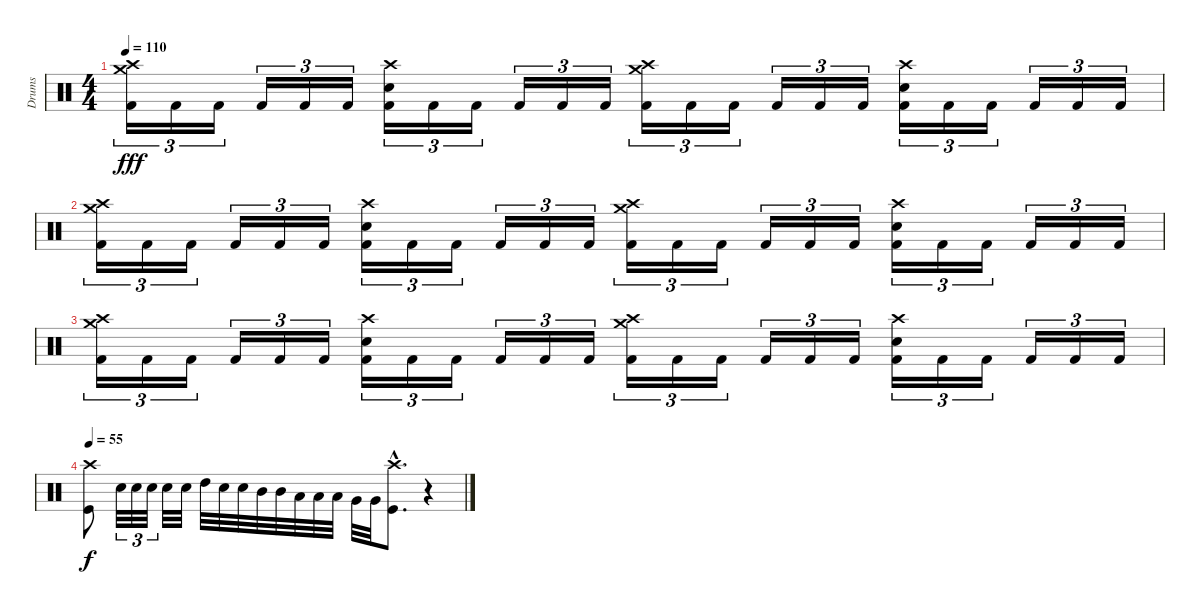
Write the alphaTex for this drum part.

\track ("Drums" "Drums") {instrument percussion}
\staff {score}
\articulation defaults
\ts (4 4)
\tempo 110
\clef neutral
\ks c
("Crash high (hit)" "Crash medium (hit)" "Kick (hit) 2").16{tu (3 2) dy fff} "Kick (hit) 2".16{tu (3 2)} "Kick (hit) 2".16{tu (3 2)} "Kick (hit) 2".16{tu (3 2)} "Kick (hit) 2".16{tu (3 2)} "Kick (hit) 2".16{tu (3 2)} ("Crash high (hit)" "Electric Snare (hit)" "Kick (hit) 2").16{tu (3 2)} "Kick (hit) 2".16{tu (3 2)} "Kick (hit) 2".16{tu (3 2)} "Kick (hit) 2".16{tu (3 2)} "Kick (hit) 2".16{tu (3 2)} "Kick (hit) 2".16{tu (3 2)} ("Crash high (hit)" "Crash medium (hit)" "Kick (hit) 2").16{tu (3 2)} "Kick (hit) 2".16{tu (3 2)} "Kick (hit) 2".16{tu (3 2)} "Kick (hit) 2".16{tu (3 2)} "Kick (hit) 2".16{tu (3 2)} "Kick (hit) 2".16{tu (3 2)} ("Crash high (hit)" "Electric Snare (hit)" "Kick (hit) 2").16{tu (3 2)} "Kick (hit) 2".16{tu (3 2)} "Kick (hit) 2".16{tu (3 2)} "Kick (hit) 2".16{tu (3 2)} "Kick (hit) 2".16{tu (3 2)} "Kick (hit) 2".16{tu (3 2)} |
("Crash high (hit)" "Crash medium (hit)" "Kick (hit) 2").16{tu (3 2)} "Kick (hit) 2".16{tu (3 2)} "Kick (hit) 2".16{tu (3 2)} "Kick (hit) 2".16{tu (3 2)} "Kick (hit) 2".16{tu (3 2)} "Kick (hit) 2".16{tu (3 2)} ("Crash high (hit)" "Electric Snare (hit)" "Kick (hit) 2").16{tu (3 2)} "Kick (hit) 2".16{tu (3 2)} "Kick (hit) 2".16{tu (3 2)} "Kick (hit) 2".16{tu (3 2)} "Kick (hit) 2".16{tu (3 2)} "Kick (hit) 2".16{tu (3 2)} ("Crash high (hit)" "Crash medium (hit)" "Kick (hit) 2").16{tu (3 2)} "Kick (hit) 2".16{tu (3 2)} "Kick (hit) 2".16{tu (3 2)} "Kick (hit) 2".16{tu (3 2)} "Kick (hit) 2".16{tu (3 2)} "Kick (hit) 2".16{tu (3 2)} ("Crash high (hit)" "Electric Snare (hit)" "Kick (hit) 2").16{tu (3 2)} "Kick (hit) 2".16{tu (3 2)} "Kick (hit) 2".16{tu (3 2)} "Kick (hit) 2".16{tu (3 2)} "Kick (hit) 2".16{tu (3 2)} "Kick (hit) 2".16{tu (3 2)} |
("Crash high (hit)" "Crash medium (hit)" "Kick (hit) 2").16{tu (3 2)} "Kick (hit) 2".16{tu (3 2)} "Kick (hit) 2".16{tu (3 2)} "Kick (hit) 2".16{tu (3 2)} "Kick (hit) 2".16{tu (3 2)} "Kick (hit) 2".16{tu (3 2)} ("Crash high (hit)" "Electric Snare (hit)" "Kick (hit) 2").16{tu (3 2)} "Kick (hit) 2".16{tu (3 2)} "Kick (hit) 2".16{tu (3 2)} "Kick (hit) 2".16{tu (3 2)} "Kick (hit) 2".16{tu (3 2)} "Kick (hit) 2".16{tu (3 2)} ("Crash high (hit)" "Crash medium (hit)" "Kick (hit) 2").16{tu (3 2)} "Kick (hit) 2".16{tu (3 2)} "Kick (hit) 2".16{tu (3 2)} "Kick (hit) 2".16{tu (3 2)} "Kick (hit) 2".16{tu (3 2)} "Kick (hit) 2".16{tu (3 2)} ("Crash high (hit)" "Electric Snare (hit)" "Kick (hit) 2").16{tu (3 2)} "Kick (hit) 2".16{tu (3 2)} "Kick (hit) 2".16{tu (3 2)} "Kick (hit) 2".16{tu (3 2)} "Kick (hit) 2".16{tu (3 2)} "Kick (hit) 2".16{tu (3 2)} |
\tempo 55
("Crash high (hit)" "Kick (hit)").8{dy f} "Electric Snare (hit)".32{tu (3 2)} "Electric Snare (hit)".32{tu (3 2)} "Electric Snare (hit)".32{tu (3 2)} "Electric Snare (hit)".32 "Electric Snare (hit)".32 "High Tom (hit)".32 "Electric Snare (hit)".32 "Electric Snare (hit)".32 "Mid Tom (hit)".32 "Mid Tom (hit)".32 "Low Tom (hit)".32 "Low Tom (hit)".32 "Low Tom (hit)".32 "Very Low Tom (hit)".32 "Very Low Tom (hit)".32 ("Crash high (hit)"{hac} "Kick (hit)"{hac}).8{d} r.4
